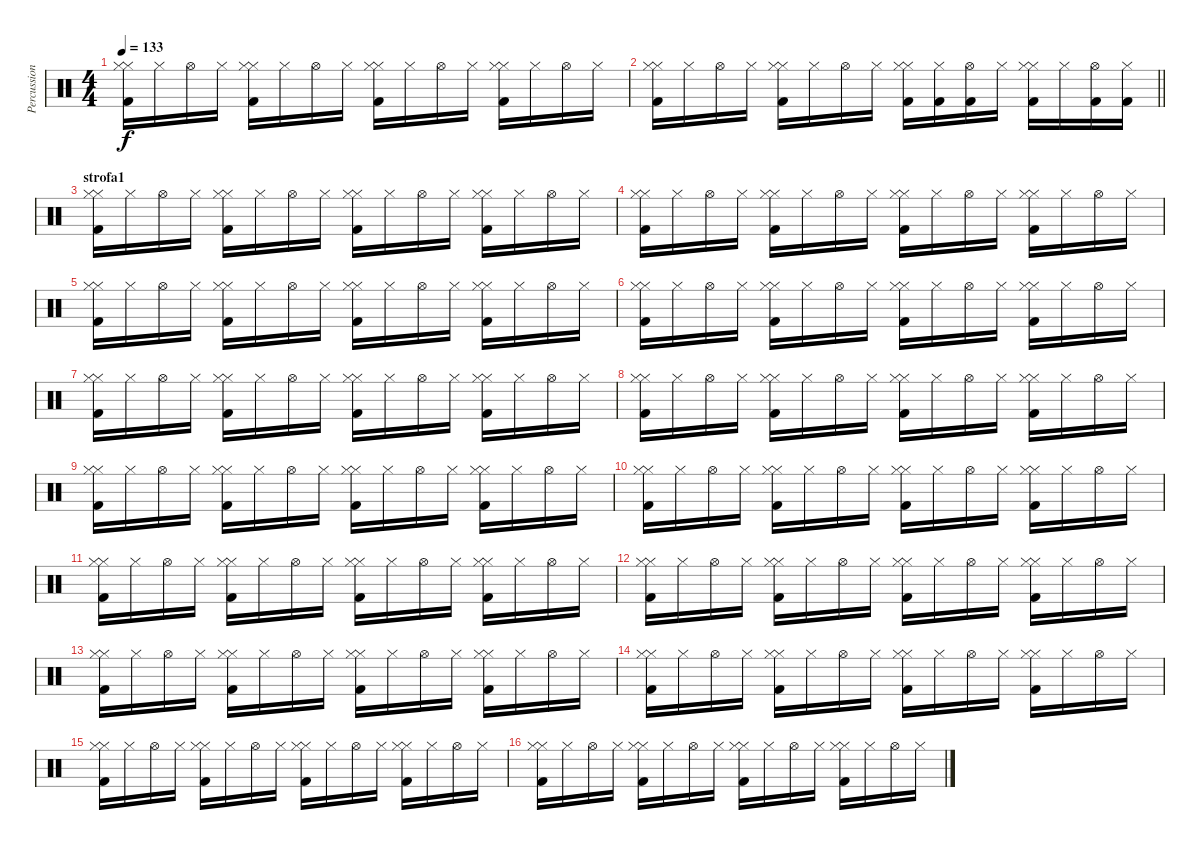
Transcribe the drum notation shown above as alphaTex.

\track ("Percussioni" "Percussion") {instrument percussion}
\staff {score}
\articulation defaults
\ts (4 4)
\tempo 133
\clef neutral
\ks c
("Hi-Hat (closed)" "Kick (hit) 2" "Hi-Hat (closed)").16{dy f} "Hi-Hat (closed)".16 "Hi-Hat (open)".16 "Hi-Hat (closed)".16 ("Hi-Hat (closed)" "Kick (hit) 2" "Hi-Hat (closed)").16 "Hi-Hat (closed)".16 "Hi-Hat (open)".16 "Hi-Hat (closed)".16 ("Hi-Hat (closed)" "Kick (hit) 2" "Hi-Hat (closed)").16 "Hi-Hat (closed)".16 "Hi-Hat (open)".16 "Hi-Hat (closed)".16 ("Hi-Hat (closed)" "Kick (hit) 2" "Hi-Hat (closed)").16 "Hi-Hat (closed)".16 "Hi-Hat (open)".16 "Hi-Hat (closed)".16 |
\barLineRight lightlight
("Hi-Hat (closed)" "Kick (hit) 2" "Hi-Hat (closed)").16 "Hi-Hat (closed)".16 "Hi-Hat (open)".16 "Hi-Hat (closed)".16 ("Hi-Hat (closed)" "Kick (hit) 2" "Hi-Hat (closed)").16 "Hi-Hat (closed)".16 "Hi-Hat (open)".16 "Hi-Hat (closed)".16 ("Hi-Hat (closed)" "Kick (hit) 2" "Hi-Hat (closed)").16 ("Hi-Hat (closed)" "Kick (hit) 2").16 ("Hi-Hat (open)" "Kick (hit) 2").16 "Hi-Hat (closed)".16 ("Hi-Hat (closed)" "Kick (hit) 2" "Hi-Hat (closed)").16 "Hi-Hat (closed)".16 ("Hi-Hat (open)" "Kick (hit) 2").16 ("Hi-Hat (closed)" "Kick (hit) 2").16 |
\section ("" "strofa1")
("Hi-Hat (closed)" "Kick (hit) 2" "Hi-Hat (closed)").16 "Hi-Hat (closed)".16 "Hi-Hat (open)".16 "Hi-Hat (closed)".16 ("Hi-Hat (closed)" "Kick (hit) 2" "Hi-Hat (closed)").16 "Hi-Hat (closed)".16 "Hi-Hat (open)".16 "Hi-Hat (closed)".16 ("Hi-Hat (closed)" "Kick (hit) 2" "Hi-Hat (closed)").16 "Hi-Hat (closed)".16 "Hi-Hat (open)".16 "Hi-Hat (closed)".16 ("Hi-Hat (closed)" "Kick (hit) 2" "Hi-Hat (closed)").16 "Hi-Hat (closed)".16 "Hi-Hat (open)".16 "Hi-Hat (closed)".16 |
("Hi-Hat (closed)" "Kick (hit) 2" "Hi-Hat (closed)").16 "Hi-Hat (closed)".16 "Hi-Hat (open)".16 "Hi-Hat (closed)".16 ("Hi-Hat (closed)" "Kick (hit) 2" "Hi-Hat (closed)").16 "Hi-Hat (closed)".16 "Hi-Hat (open)".16 "Hi-Hat (closed)".16 ("Hi-Hat (closed)" "Kick (hit) 2" "Hi-Hat (closed)").16 "Hi-Hat (closed)".16 "Hi-Hat (open)".16 "Hi-Hat (closed)".16 ("Hi-Hat (closed)" "Kick (hit) 2" "Hi-Hat (closed)").16 "Hi-Hat (closed)".16 "Hi-Hat (open)".16 "Hi-Hat (closed)".16 |
("Hi-Hat (closed)" "Kick (hit) 2" "Hi-Hat (closed)").16 "Hi-Hat (closed)".16 "Hi-Hat (open)".16 "Hi-Hat (closed)".16 ("Hi-Hat (closed)" "Kick (hit) 2" "Hi-Hat (closed)").16 "Hi-Hat (closed)".16 "Hi-Hat (open)".16 "Hi-Hat (closed)".16 ("Hi-Hat (closed)" "Kick (hit) 2" "Hi-Hat (closed)").16 "Hi-Hat (closed)".16 "Hi-Hat (open)".16 "Hi-Hat (closed)".16 ("Hi-Hat (closed)" "Kick (hit) 2" "Hi-Hat (closed)").16 "Hi-Hat (closed)".16 "Hi-Hat (open)".16 "Hi-Hat (closed)".16 |
("Hi-Hat (closed)" "Kick (hit) 2" "Hi-Hat (closed)").16 "Hi-Hat (closed)".16 "Hi-Hat (open)".16 "Hi-Hat (closed)".16 ("Hi-Hat (closed)" "Kick (hit) 2" "Hi-Hat (closed)").16 "Hi-Hat (closed)".16 "Hi-Hat (open)".16 "Hi-Hat (closed)".16 ("Hi-Hat (closed)" "Kick (hit) 2" "Hi-Hat (closed)").16 "Hi-Hat (closed)".16 "Hi-Hat (open)".16 "Hi-Hat (closed)".16 ("Hi-Hat (closed)" "Kick (hit) 2" "Hi-Hat (closed)").16 "Hi-Hat (closed)".16 "Hi-Hat (open)".16 "Hi-Hat (closed)".16 |
("Hi-Hat (closed)" "Kick (hit) 2" "Hi-Hat (closed)").16 "Hi-Hat (closed)".16 "Hi-Hat (open)".16 "Hi-Hat (closed)".16 ("Hi-Hat (closed)" "Kick (hit) 2" "Hi-Hat (closed)").16 "Hi-Hat (closed)".16 "Hi-Hat (open)".16 "Hi-Hat (closed)".16 ("Hi-Hat (closed)" "Kick (hit) 2" "Hi-Hat (closed)").16 "Hi-Hat (closed)".16 "Hi-Hat (open)".16 "Hi-Hat (closed)".16 ("Hi-Hat (closed)" "Kick (hit) 2" "Hi-Hat (closed)").16 "Hi-Hat (closed)".16 "Hi-Hat (open)".16 "Hi-Hat (closed)".16 |
("Hi-Hat (closed)" "Kick (hit) 2" "Hi-Hat (closed)").16 "Hi-Hat (closed)".16 "Hi-Hat (open)".16 "Hi-Hat (closed)".16 ("Hi-Hat (closed)" "Kick (hit) 2" "Hi-Hat (closed)").16 "Hi-Hat (closed)".16 "Hi-Hat (open)".16 "Hi-Hat (closed)".16 ("Hi-Hat (closed)" "Kick (hit) 2" "Hi-Hat (closed)").16 "Hi-Hat (closed)".16 "Hi-Hat (open)".16 "Hi-Hat (closed)".16 ("Hi-Hat (closed)" "Kick (hit) 2" "Hi-Hat (closed)").16 "Hi-Hat (closed)".16 "Hi-Hat (open)".16 "Hi-Hat (closed)".16 |
("Hi-Hat (closed)" "Kick (hit) 2" "Hi-Hat (closed)").16 "Hi-Hat (closed)".16 "Hi-Hat (open)".16 "Hi-Hat (closed)".16 ("Hi-Hat (closed)" "Kick (hit) 2" "Hi-Hat (closed)").16 "Hi-Hat (closed)".16 "Hi-Hat (open)".16 "Hi-Hat (closed)".16 ("Hi-Hat (closed)" "Kick (hit) 2" "Hi-Hat (closed)").16 "Hi-Hat (closed)".16 "Hi-Hat (open)".16 "Hi-Hat (closed)".16 ("Hi-Hat (closed)" "Kick (hit) 2" "Hi-Hat (closed)").16 "Hi-Hat (closed)".16 "Hi-Hat (open)".16 "Hi-Hat (closed)".16 |
("Hi-Hat (closed)" "Kick (hit) 2" "Hi-Hat (closed)").16 "Hi-Hat (closed)".16 "Hi-Hat (open)".16 "Hi-Hat (closed)".16 ("Hi-Hat (closed)" "Kick (hit) 2" "Hi-Hat (closed)").16 "Hi-Hat (closed)".16 "Hi-Hat (open)".16 "Hi-Hat (closed)".16 ("Hi-Hat (closed)" "Kick (hit) 2" "Hi-Hat (closed)").16 "Hi-Hat (closed)".16 "Hi-Hat (open)".16 "Hi-Hat (closed)".16 ("Hi-Hat (closed)" "Kick (hit) 2" "Hi-Hat (closed)").16 "Hi-Hat (closed)".16 "Hi-Hat (open)".16 "Hi-Hat (closed)".16 |
("Hi-Hat (closed)" "Kick (hit) 2" "Hi-Hat (closed)").16 "Hi-Hat (closed)".16 "Hi-Hat (open)".16 "Hi-Hat (closed)".16 ("Hi-Hat (closed)" "Kick (hit) 2" "Hi-Hat (closed)").16 "Hi-Hat (closed)".16 "Hi-Hat (open)".16 "Hi-Hat (closed)".16 ("Hi-Hat (closed)" "Kick (hit) 2" "Hi-Hat (closed)").16 "Hi-Hat (closed)".16 "Hi-Hat (open)".16 "Hi-Hat (closed)".16 ("Hi-Hat (closed)" "Kick (hit) 2" "Hi-Hat (closed)").16 "Hi-Hat (closed)".16 "Hi-Hat (open)".16 "Hi-Hat (closed)".16 |
("Hi-Hat (closed)" "Kick (hit) 2" "Hi-Hat (closed)").16 "Hi-Hat (closed)".16 "Hi-Hat (open)".16 "Hi-Hat (closed)".16 ("Hi-Hat (closed)" "Kick (hit) 2" "Hi-Hat (closed)").16 "Hi-Hat (closed)".16 "Hi-Hat (open)".16 "Hi-Hat (closed)".16 ("Hi-Hat (closed)" "Kick (hit) 2" "Hi-Hat (closed)").16 "Hi-Hat (closed)".16 "Hi-Hat (open)".16 "Hi-Hat (closed)".16 ("Hi-Hat (closed)" "Kick (hit) 2" "Hi-Hat (closed)").16 "Hi-Hat (closed)".16 "Hi-Hat (open)".16 "Hi-Hat (closed)".16 |
("Hi-Hat (closed)" "Kick (hit) 2" "Hi-Hat (closed)").16 "Hi-Hat (closed)".16 "Hi-Hat (open)".16 "Hi-Hat (closed)".16 ("Hi-Hat (closed)" "Kick (hit) 2" "Hi-Hat (closed)").16 "Hi-Hat (closed)".16 "Hi-Hat (open)".16 "Hi-Hat (closed)".16 ("Hi-Hat (closed)" "Kick (hit) 2" "Hi-Hat (closed)").16 "Hi-Hat (closed)".16 "Hi-Hat (open)".16 "Hi-Hat (closed)".16 ("Hi-Hat (closed)" "Kick (hit) 2" "Hi-Hat (closed)").16 "Hi-Hat (closed)".16 "Hi-Hat (open)".16 "Hi-Hat (closed)".16 |
("Hi-Hat (closed)" "Kick (hit) 2" "Hi-Hat (closed)").16 "Hi-Hat (closed)".16 "Hi-Hat (open)".16 "Hi-Hat (closed)".16 ("Hi-Hat (closed)" "Kick (hit) 2" "Hi-Hat (closed)").16 "Hi-Hat (closed)".16 "Hi-Hat (open)".16 "Hi-Hat (closed)".16 ("Hi-Hat (closed)" "Kick (hit) 2" "Hi-Hat (closed)").16 "Hi-Hat (closed)".16 "Hi-Hat (open)".16 "Hi-Hat (closed)".16 ("Hi-Hat (closed)" "Kick (hit) 2" "Hi-Hat (closed)").16 "Hi-Hat (closed)".16 "Hi-Hat (open)".16 "Hi-Hat (closed)".16 |
("Hi-Hat (closed)" "Kick (hit) 2" "Hi-Hat (closed)").16 "Hi-Hat (closed)".16 "Hi-Hat (open)".16 "Hi-Hat (closed)".16 ("Hi-Hat (closed)" "Kick (hit) 2" "Hi-Hat (closed)").16 "Hi-Hat (closed)".16 "Hi-Hat (open)".16 "Hi-Hat (closed)".16 ("Hi-Hat (closed)" "Kick (hit) 2" "Hi-Hat (closed)").16 "Hi-Hat (closed)".16 "Hi-Hat (open)".16 "Hi-Hat (closed)".16 ("Hi-Hat (closed)" "Kick (hit) 2" "Hi-Hat (closed)").16 "Hi-Hat (closed)".16 "Hi-Hat (open)".16 "Hi-Hat (closed)".16 |
("Hi-Hat (closed)" "Kick (hit) 2" "Hi-Hat (closed)").16 "Hi-Hat (closed)".16 "Hi-Hat (open)".16 "Hi-Hat (closed)".16 ("Hi-Hat (closed)" "Kick (hit) 2" "Hi-Hat (closed)").16 "Hi-Hat (closed)".16 "Hi-Hat (open)".16 "Hi-Hat (closed)".16 ("Hi-Hat (closed)" "Kick (hit) 2" "Hi-Hat (closed)").16 "Hi-Hat (closed)".16 "Hi-Hat (open)".16 "Hi-Hat (closed)".16 ("Hi-Hat (closed)" "Kick (hit) 2" "Hi-Hat (closed)").16 "Hi-Hat (closed)".16 "Hi-Hat (open)".16 "Hi-Hat (closed)".16
